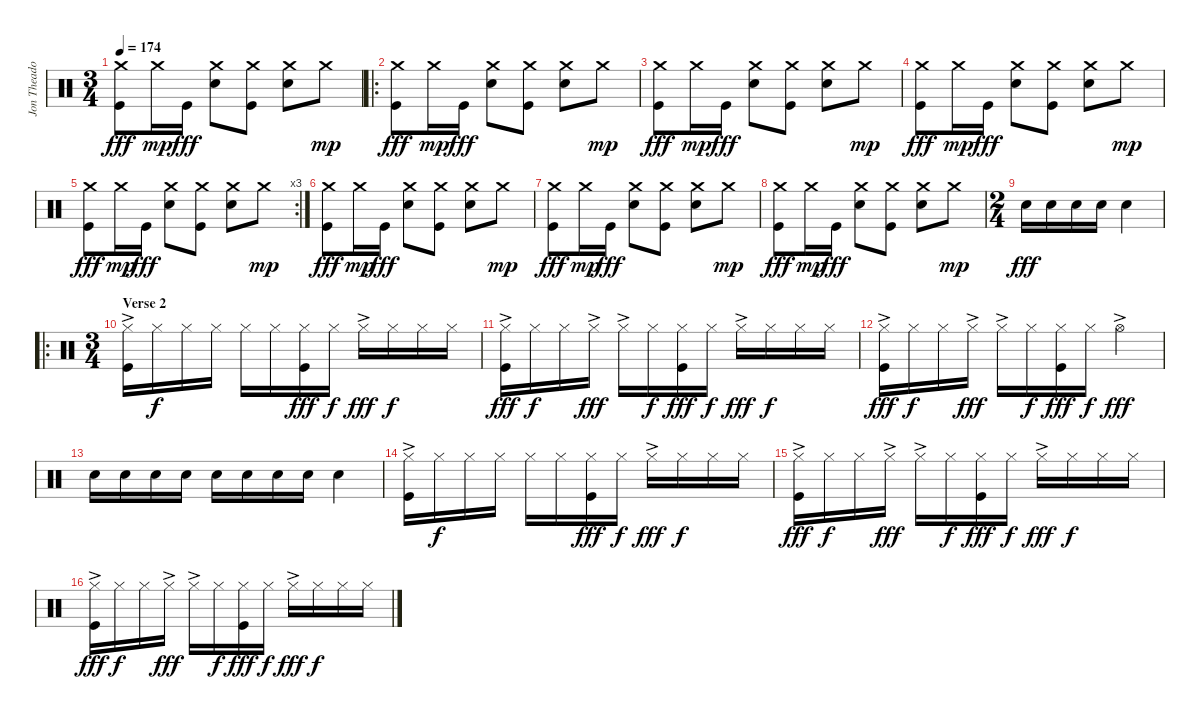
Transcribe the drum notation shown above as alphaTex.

\track ("Jon Theadore - Drums" "Jon Theado") {instrument percussion}
\staff {score}
\articulation defaults
\ts (3 4)
\tempo 174
\clef neutral
\ks c
("Crash medium (hit)" "Kick (hit)").8{dy fff} "Crash medium (hit)".16{dy mp} "Kick (hit)".16{dy fff} ("Crash medium (hit)" "Snare (hit) 2").8 ("Crash medium (hit)" "Kick (hit)").8 ("Crash medium (hit)" "Snare (hit) 2").8 "Crash medium (hit)".8{dy mp} |
\ro
("Crash medium (hit)" "Kick (hit)").8{dy fff} "Crash medium (hit)".16{dy mp} "Kick (hit)".16{dy fff} ("Crash medium (hit)" "Snare (hit) 2").8 ("Crash medium (hit)" "Kick (hit)").8 ("Crash medium (hit)" "Snare (hit) 2").8 "Crash medium (hit)".8{dy mp} |
("Crash medium (hit)" "Kick (hit)").8{dy fff} "Crash medium (hit)".16{dy mp} "Kick (hit)".16{dy fff} ("Crash medium (hit)" "Snare (hit) 2").8 ("Crash medium (hit)" "Kick (hit)").8 ("Crash medium (hit)" "Snare (hit) 2").8 "Crash medium (hit)".8{dy mp} |
("Crash medium (hit)" "Kick (hit)").8{dy fff} "Crash medium (hit)".16{dy mp} "Kick (hit)".16{dy fff} ("Crash medium (hit)" "Snare (hit) 2").8 ("Crash medium (hit)" "Kick (hit)").8 ("Crash medium (hit)" "Snare (hit) 2").8 "Crash medium (hit)".8{dy mp} |
\rc 3
("Crash medium (hit)" "Kick (hit)").8{dy fff} "Crash medium (hit)".16{dy mp} "Kick (hit)".16{dy fff} ("Crash medium (hit)" "Snare (hit) 2").8 ("Crash medium (hit)" "Kick (hit)").8 ("Crash medium (hit)" "Snare (hit) 2").8 "Crash medium (hit)".8{dy mp} |
("Crash medium (hit)" "Kick (hit)").8{dy fff} "Crash medium (hit)".16{dy mp} "Kick (hit)".16{dy fff} ("Crash medium (hit)" "Snare (hit) 2").8 ("Crash medium (hit)" "Kick (hit)").8 ("Crash medium (hit)" "Snare (hit) 2").8 "Crash medium (hit)".8{dy mp} |
("Crash medium (hit)" "Kick (hit)").8{dy fff} "Crash medium (hit)".16{dy mp} "Kick (hit)".16{dy fff} ("Crash medium (hit)" "Snare (hit) 2").8 ("Crash medium (hit)" "Kick (hit)").8 ("Crash medium (hit)" "Snare (hit) 2").8 "Crash medium (hit)".8{dy mp} |
("Crash medium (hit)" "Kick (hit)").8{dy fff} "Crash medium (hit)".16{dy mp} "Kick (hit)".16{dy fff} ("Crash medium (hit)" "Snare (hit) 2").8 ("Crash medium (hit)" "Kick (hit)").8 ("Crash medium (hit)" "Snare (hit) 2").8 "Crash medium (hit)".8{dy mp} |
\ts (2 4)
"Snare (hit) 2".16{dy fff} "Snare (hit) 2".16 "Snare (hit) 2".16 "Snare (hit) 2".16 "Snare (hit) 2".4 |
\ro
\ts (3 4)
\section ("" "Verse 2")
("Hi-Hat (closed)"{ac} "Kick (hit)").16 "Hi-Hat (closed)".16{dy f} "Hi-Hat (closed)".16 "Hi-Hat (closed)".16 "Hi-Hat (closed)".16 "Hi-Hat (closed)".16 ("Hi-Hat (closed)" "Kick (hit)").16{dy fff} "Hi-Hat (closed)".16{dy f} "Hi-Hat (closed)"{ac}.16{dy fff} "Hi-Hat (closed)".16{dy f} "Hi-Hat (closed)".16 "Hi-Hat (closed)".16 |
("Hi-Hat (closed)"{ac} "Kick (hit)").16{dy fff} "Hi-Hat (closed)".16{dy f} "Hi-Hat (closed)".16 "Hi-Hat (closed)"{ac}.16{dy fff} "Hi-Hat (closed)"{ac}.16 "Hi-Hat (closed)".16{dy f} ("Hi-Hat (closed)" "Kick (hit)").16{dy fff} "Hi-Hat (closed)".16{dy f} "Hi-Hat (closed)"{ac}.16{dy fff} "Hi-Hat (closed)".16{dy f} "Hi-Hat (closed)".16 "Hi-Hat (closed)".16 |
("Hi-Hat (closed)"{ac} "Kick (hit)").16{dy fff} "Hi-Hat (closed)".16{dy f} "Hi-Hat (closed)".16 "Hi-Hat (closed)"{ac}.16{dy fff} "Hi-Hat (closed)"{ac}.16 "Hi-Hat (closed)".16{dy f} ("Hi-Hat (closed)" "Kick (hit)").16{dy fff} "Hi-Hat (closed)".16{dy f} "Hi-Hat (open)"{ac}.4{dy fff} |
"Snare (hit) 2".16 "Snare (hit) 2".16 "Snare (hit) 2".16 "Snare (hit) 2".16 "Snare (hit) 2".16 "Snare (hit) 2".16 "Snare (hit) 2".16 "Snare (hit) 2".16 "Snare (hit) 2".4 |
("Hi-Hat (closed)"{ac} "Kick (hit)").16 "Hi-Hat (closed)".16{dy f} "Hi-Hat (closed)".16 "Hi-Hat (closed)".16 "Hi-Hat (closed)".16 "Hi-Hat (closed)".16 ("Hi-Hat (closed)" "Kick (hit)").16{dy fff} "Hi-Hat (closed)".16{dy f} "Hi-Hat (closed)"{ac}.16{dy fff} "Hi-Hat (closed)".16{dy f} "Hi-Hat (closed)".16 "Hi-Hat (closed)".16 |
("Hi-Hat (closed)"{ac} "Kick (hit)").16{dy fff} "Hi-Hat (closed)".16{dy f} "Hi-Hat (closed)".16 "Hi-Hat (closed)"{ac}.16{dy fff} "Hi-Hat (closed)"{ac}.16 "Hi-Hat (closed)".16{dy f} ("Hi-Hat (closed)" "Kick (hit)").16{dy fff} "Hi-Hat (closed)".16{dy f} "Hi-Hat (closed)"{ac}.16{dy fff} "Hi-Hat (closed)".16{dy f} "Hi-Hat (closed)".16 "Hi-Hat (closed)".16 |
("Hi-Hat (closed)"{ac} "Kick (hit)").16{dy fff} "Hi-Hat (closed)".16{dy f} "Hi-Hat (closed)".16 "Hi-Hat (closed)"{ac}.16{dy fff} "Hi-Hat (closed)"{ac}.16 "Hi-Hat (closed)".16{dy f} ("Hi-Hat (closed)" "Kick (hit)").16{dy fff} "Hi-Hat (closed)".16{dy f} "Hi-Hat (closed)"{ac}.16{dy fff} "Hi-Hat (closed)".16{dy f} "Hi-Hat (closed)".16 "Hi-Hat (closed)".16
